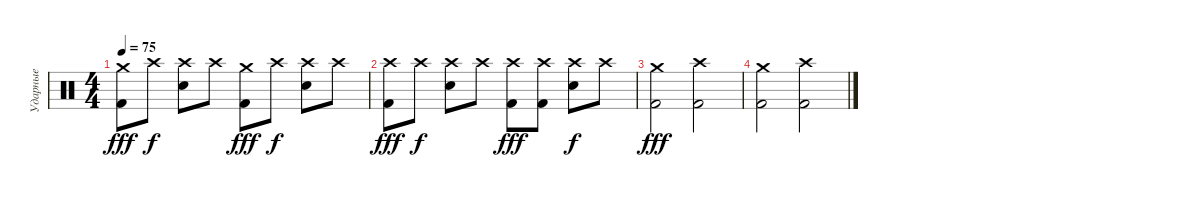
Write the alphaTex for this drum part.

\track ("Ударные" "Ударные") {instrument percussion}
\staff {score}
\articulation defaults
\ts (4 4)
\tempo 75
\clef neutral
\ks c
("Crash medium (hit)" "Kick (hit) 2").8{dy fff} "Crash high (hit)".8{dy f} ("Crash high (hit)" "Electric Snare (hit)").8 "Crash high (hit)".8 ("Crash medium (hit)" "Kick (hit) 2").8{dy fff} "Crash high (hit)".8{dy f} ("Crash high (hit)" "Electric Snare (hit)").8 "Crash high (hit)".8 |
("Crash high (hit)" "Kick (hit) 2").8{dy fff} "Crash high (hit)".8{dy f} ("Crash high (hit)" "Electric Snare (hit)").8 "Crash high (hit)".8 ("Crash high (hit)" "Kick (hit) 2").8{dy fff} ("Crash high (hit)" "Kick (hit) 2").8 ("Crash high (hit)" "Electric Snare (hit)").8{dy f} "Crash high (hit)".8 |
("Crash medium (hit)" "Kick (hit) 2").2{dy fff} ("Crash high (hit)" "Kick (hit) 2").2 |
("Crash medium (hit)" "Kick (hit) 2").2 ("Crash high (hit)" "Kick (hit) 2").2
